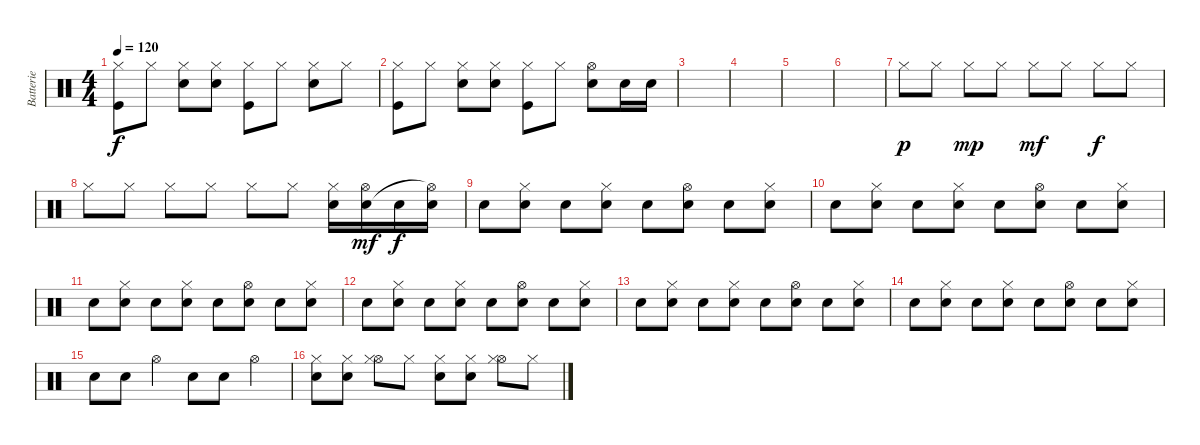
\track ("Batterie" "Batterie") {instrument percussion}
\staff {score}
\articulation defaults
\ts (4 4)
\tempo 120
\clef neutral
\ks c
("Hi-Hat (closed)" "Kick (hit)").8{dy f} "Hi-Hat (closed)".8 ("Hi-Hat (closed)" "Snare (hit) 2").8 ("Hi-Hat (closed)" "Snare (hit) 2").8 ("Hi-Hat (closed)" "Kick (hit)").8 "Hi-Hat (closed)".8 ("Hi-Hat (closed)" "Snare (hit) 2").8 "Hi-Hat (closed)".8 |
("Hi-Hat (closed)" "Kick (hit)").8 "Hi-Hat (closed)".8 ("Hi-Hat (closed)" "Snare (hit) 2").8 ("Hi-Hat (closed)" "Snare (hit) 2").8 ("Hi-Hat (closed)" "Kick (hit)").8 "Hi-Hat (closed)".8 ("Hi-Hat (open)" "Snare (hit) 2").8 "Snare (hit) 2".16 "Snare (hit) 2".16 |
|
|
|
|
"Hi-Hat (closed)".8{dy p} "Hi-Hat (closed)".8 "Hi-Hat (closed)".8{dy mp} "Hi-Hat (closed)".8 "Hi-Hat (closed)".8{dy mf} "Hi-Hat (closed)".8 "Hi-Hat (closed)".8{dy f} "Hi-Hat (closed)".8 |
"Hi-Hat (closed)".8 "Hi-Hat (closed)".8 "Hi-Hat (closed)".8 "Hi-Hat (closed)".8 "Hi-Hat (closed)".8 "Hi-Hat (closed)".8 ("Hi-Hat (closed)" "Snare (hit) 2").16 ("Hi-Hat (open)" "Snare (hit) 2").16{dy mf} "Snare (hit) 2".16{dy f} ("Snare (hit) 2" "Hi-Hat (open)"{t}).16 |
"Snare (hit) 2".8 ("Snare (hit) 2" "Hi-Hat (closed)").8 "Snare (hit) 2".8 ("Snare (hit) 2" "Hi-Hat (closed)").8 "Snare (hit) 2".8 ("Snare (hit) 2" "Hi-Hat (open)").8 "Snare (hit) 2".8 ("Snare (hit) 2" "Hi-Hat (closed)").8 |
"Snare (hit) 2".8 ("Snare (hit) 2" "Hi-Hat (closed)").8 "Snare (hit) 2".8 ("Snare (hit) 2" "Hi-Hat (closed)").8 "Snare (hit) 2".8 ("Snare (hit) 2" "Hi-Hat (open)").8 "Snare (hit) 2".8 ("Snare (hit) 2" "Hi-Hat (closed)").8 |
"Snare (hit) 2".8 ("Snare (hit) 2" "Hi-Hat (closed)").8 "Snare (hit) 2".8 ("Snare (hit) 2" "Hi-Hat (closed)").8 "Snare (hit) 2".8 ("Snare (hit) 2" "Hi-Hat (open)").8 "Snare (hit) 2".8 ("Snare (hit) 2" "Hi-Hat (closed)").8 |
"Snare (hit) 2".8 ("Snare (hit) 2" "Hi-Hat (closed)").8 "Snare (hit) 2".8 ("Snare (hit) 2" "Hi-Hat (closed)").8 "Snare (hit) 2".8 ("Snare (hit) 2" "Hi-Hat (open)").8 "Snare (hit) 2".8 ("Snare (hit) 2" "Hi-Hat (closed)").8 |
"Snare (hit) 2".8 ("Snare (hit) 2" "Hi-Hat (closed)").8 "Snare (hit) 2".8 ("Snare (hit) 2" "Hi-Hat (closed)").8 "Snare (hit) 2".8 ("Snare (hit) 2" "Hi-Hat (open)").8 "Snare (hit) 2".8 ("Snare (hit) 2" "Hi-Hat (closed)").8 |
"Snare (hit) 2".8 ("Snare (hit) 2" "Hi-Hat (closed)").8 "Snare (hit) 2".8 ("Snare (hit) 2" "Hi-Hat (closed)").8 "Snare (hit) 2".8 ("Snare (hit) 2" "Hi-Hat (open)").8 "Snare (hit) 2".8 ("Snare (hit) 2" "Hi-Hat (closed)").8 |
"Snare (hit) 2".8 "Snare (hit) 2".8 "Hi-Hat (open)".4 "Snare (hit) 2".8 "Snare (hit) 2".8 "Hi-Hat (open)".4 |
("Snare (hit) 2" "Hi-Hat (closed)").8 ("Snare (hit) 2" "Hi-Hat (closed)").8 ("Hi-Hat (open)" "Hi-Hat (closed)").8 "Hi-Hat (closed)".8 ("Snare (hit) 2" "Hi-Hat (closed)").8 ("Snare (hit) 2" "Hi-Hat (closed)").8 ("Hi-Hat (open)" "Hi-Hat (closed)").8 "Hi-Hat (closed)".8
